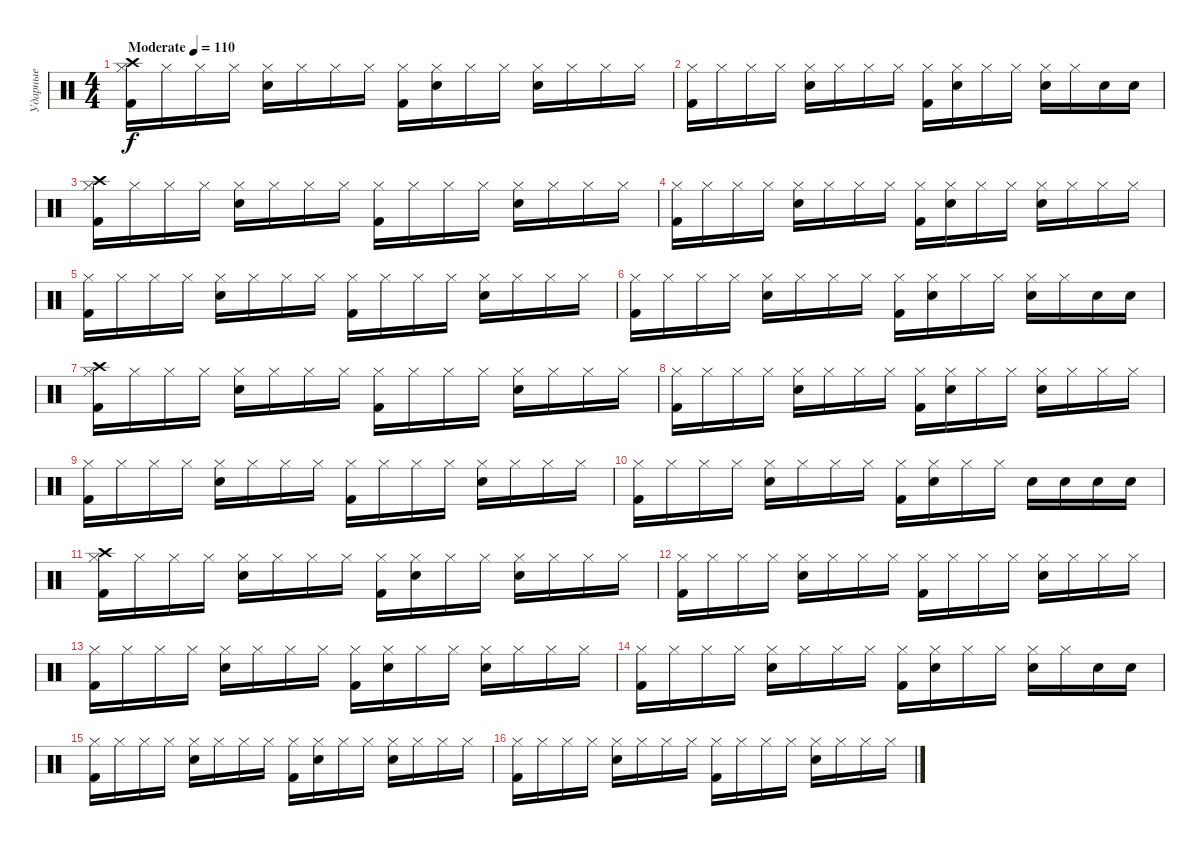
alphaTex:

\track ("Ударные" "Ударные") {instrument percussion}
\staff {score}
\articulation defaults
\ts (4 4)
\tempo (110 "Moderate")
\clef neutral
\ks c
("Crash high (hit)" "Hi-Hat (closed)" "Kick (hit) 2").16{dy f volume 16} "Hi-Hat (closed)".16 "Hi-Hat (closed)".16 "Hi-Hat (closed)".16 ("Hi-Hat (closed)" "Snare (hit) 2").16 "Hi-Hat (closed)".16 "Hi-Hat (closed)".16 "Hi-Hat (closed)".16 ("Hi-Hat (closed)" "Kick (hit) 2").16 ("Hi-Hat (closed)" "Snare (hit) 2").16 "Hi-Hat (closed)".16 "Hi-Hat (closed)".16 ("Hi-Hat (closed)" "Snare (hit) 2").16 "Hi-Hat (closed)".16 "Hi-Hat (closed)".16 "Hi-Hat (closed)".16 |
("Hi-Hat (closed)" "Kick (hit) 2").16 "Hi-Hat (closed)".16 "Hi-Hat (closed)".16 "Hi-Hat (closed)".16 ("Hi-Hat (closed)" "Snare (hit) 2").16 "Hi-Hat (closed)".16 "Hi-Hat (closed)".16 "Hi-Hat (closed)".16 ("Hi-Hat (closed)" "Kick (hit) 2").16 ("Hi-Hat (closed)" "Snare (hit) 2").16 "Hi-Hat (closed)".16 "Hi-Hat (closed)".16 ("Hi-Hat (closed)" "Snare (hit) 2").16 "Hi-Hat (closed)".16 "Snare (hit) 2".16 "Snare (hit) 2".16 |
("Crash high (hit)" "Hi-Hat (closed)" "Kick (hit) 2").16 "Hi-Hat (closed)".16 "Hi-Hat (closed)".16 "Hi-Hat (closed)".16 ("Hi-Hat (closed)" "Snare (hit) 2").16 "Hi-Hat (closed)".16 "Hi-Hat (closed)".16 "Hi-Hat (closed)".16 ("Hi-Hat (closed)" "Kick (hit) 2").16 "Hi-Hat (closed)".16 "Hi-Hat (closed)".16 "Hi-Hat (closed)".16 ("Hi-Hat (closed)" "Snare (hit) 2").16 "Hi-Hat (closed)".16 "Hi-Hat (closed)".16 "Hi-Hat (closed)".16 |
("Hi-Hat (closed)" "Kick (hit) 2").16 "Hi-Hat (closed)".16 "Hi-Hat (closed)".16 "Hi-Hat (closed)".16 ("Hi-Hat (closed)" "Snare (hit) 2").16 "Hi-Hat (closed)".16 "Hi-Hat (closed)".16 "Hi-Hat (closed)".16 ("Hi-Hat (closed)" "Kick (hit) 2").16 ("Hi-Hat (closed)" "Snare (hit) 2").16 "Hi-Hat (closed)".16 "Hi-Hat (closed)".16 ("Hi-Hat (closed)" "Snare (hit) 2").16 "Hi-Hat (closed)".16 "Hi-Hat (closed)".16 "Hi-Hat (closed)".16 |
("Hi-Hat (closed)" "Kick (hit) 2").16 "Hi-Hat (closed)".16 "Hi-Hat (closed)".16 "Hi-Hat (closed)".16 ("Hi-Hat (closed)" "Snare (hit) 2").16 "Hi-Hat (closed)".16 "Hi-Hat (closed)".16 "Hi-Hat (closed)".16 ("Hi-Hat (closed)" "Kick (hit) 2").16 "Hi-Hat (closed)".16 "Hi-Hat (closed)".16 "Hi-Hat (closed)".16 ("Hi-Hat (closed)" "Snare (hit) 2").16 "Hi-Hat (closed)".16 "Hi-Hat (closed)".16 "Hi-Hat (closed)".16 |
("Hi-Hat (closed)" "Kick (hit) 2").16 "Hi-Hat (closed)".16 "Hi-Hat (closed)".16 "Hi-Hat (closed)".16 ("Hi-Hat (closed)" "Snare (hit) 2").16 "Hi-Hat (closed)".16 "Hi-Hat (closed)".16 "Hi-Hat (closed)".16 ("Hi-Hat (closed)" "Kick (hit) 2").16 ("Hi-Hat (closed)" "Snare (hit) 2").16 "Hi-Hat (closed)".16 "Hi-Hat (closed)".16 ("Hi-Hat (closed)" "Snare (hit) 2").16 "Hi-Hat (closed)".16 "Snare (hit) 2".16 "Snare (hit) 2".16 |
("Crash high (hit)" "Hi-Hat (closed)" "Kick (hit) 2").16 "Hi-Hat (closed)".16 "Hi-Hat (closed)".16 "Hi-Hat (closed)".16 ("Hi-Hat (closed)" "Snare (hit) 2").16 "Hi-Hat (closed)".16 "Hi-Hat (closed)".16 "Hi-Hat (closed)".16 ("Hi-Hat (closed)" "Kick (hit) 2").16 "Hi-Hat (closed)".16 "Hi-Hat (closed)".16 "Hi-Hat (closed)".16 ("Hi-Hat (closed)" "Snare (hit) 2").16 "Hi-Hat (closed)".16 "Hi-Hat (closed)".16 "Hi-Hat (closed)".16 |
("Hi-Hat (closed)" "Kick (hit) 2").16 "Hi-Hat (closed)".16 "Hi-Hat (closed)".16 "Hi-Hat (closed)".16 ("Hi-Hat (closed)" "Snare (hit) 2").16 "Hi-Hat (closed)".16 "Hi-Hat (closed)".16 "Hi-Hat (closed)".16 ("Hi-Hat (closed)" "Kick (hit) 2").16 ("Hi-Hat (closed)" "Snare (hit) 2").16 "Hi-Hat (closed)".16 "Hi-Hat (closed)".16 ("Hi-Hat (closed)" "Snare (hit) 2").16 "Hi-Hat (closed)".16 "Hi-Hat (closed)".16 "Hi-Hat (closed)".16 |
("Hi-Hat (closed)" "Kick (hit) 2").16 "Hi-Hat (closed)".16 "Hi-Hat (closed)".16 "Hi-Hat (closed)".16 ("Hi-Hat (closed)" "Snare (hit) 2").16 "Hi-Hat (closed)".16 "Hi-Hat (closed)".16 "Hi-Hat (closed)".16 ("Hi-Hat (closed)" "Kick (hit) 2").16 "Hi-Hat (closed)".16 "Hi-Hat (closed)".16 "Hi-Hat (closed)".16 ("Hi-Hat (closed)" "Snare (hit) 2").16 "Hi-Hat (closed)".16 "Hi-Hat (closed)".16 "Hi-Hat (closed)".16 |
("Hi-Hat (closed)" "Kick (hit) 2").16 "Hi-Hat (closed)".16 "Hi-Hat (closed)".16 "Hi-Hat (closed)".16 ("Hi-Hat (closed)" "Snare (hit) 2").16 "Hi-Hat (closed)".16 "Hi-Hat (closed)".16 "Hi-Hat (closed)".16 ("Hi-Hat (closed)" "Kick (hit) 2").16 ("Hi-Hat (closed)" "Snare (hit) 2").16 "Hi-Hat (closed)".16 "Hi-Hat (closed)".16 "Snare (hit) 2".16 "Snare (hit) 2".16 "Snare (hit) 2".16 "Snare (hit) 2".16 |
("Crash high (hit)" "Hi-Hat (closed)" "Kick (hit) 2").16 "Hi-Hat (closed)".16 "Hi-Hat (closed)".16 "Hi-Hat (closed)".16 ("Hi-Hat (closed)" "Snare (hit) 2").16 "Hi-Hat (closed)".16 "Hi-Hat (closed)".16 "Hi-Hat (closed)".16 ("Hi-Hat (closed)" "Kick (hit) 2").16 ("Hi-Hat (closed)" "Snare (hit) 2").16 "Hi-Hat (closed)".16 "Hi-Hat (closed)".16 ("Hi-Hat (closed)" "Snare (hit) 2").16 "Hi-Hat (closed)".16 "Hi-Hat (closed)".16 "Hi-Hat (closed)".16 |
("Hi-Hat (closed)" "Kick (hit) 2").16 "Hi-Hat (closed)".16 "Hi-Hat (closed)".16 "Hi-Hat (closed)".16 ("Hi-Hat (closed)" "Snare (hit) 2").16 "Hi-Hat (closed)".16 "Hi-Hat (closed)".16 "Hi-Hat (closed)".16 ("Hi-Hat (closed)" "Kick (hit) 2").16 "Hi-Hat (closed)".16 "Hi-Hat (closed)".16 "Hi-Hat (closed)".16 ("Hi-Hat (closed)" "Snare (hit) 2").16 "Hi-Hat (closed)".16 "Hi-Hat (closed)".16 "Hi-Hat (closed)".16 |
("Hi-Hat (closed)" "Kick (hit) 2").16 "Hi-Hat (closed)".16 "Hi-Hat (closed)".16 "Hi-Hat (closed)".16 ("Hi-Hat (closed)" "Snare (hit) 2").16 "Hi-Hat (closed)".16 "Hi-Hat (closed)".16 "Hi-Hat (closed)".16 ("Hi-Hat (closed)" "Kick (hit) 2").16 ("Hi-Hat (closed)" "Snare (hit) 2").16 "Hi-Hat (closed)".16 "Hi-Hat (closed)".16 ("Hi-Hat (closed)" "Snare (hit) 2").16 "Hi-Hat (closed)".16 "Hi-Hat (closed)".16 "Hi-Hat (closed)".16 |
("Hi-Hat (closed)" "Kick (hit) 2").16 "Hi-Hat (closed)".16 "Hi-Hat (closed)".16 "Hi-Hat (closed)".16 ("Hi-Hat (closed)" "Snare (hit) 2").16 "Hi-Hat (closed)".16 "Hi-Hat (closed)".16 "Hi-Hat (closed)".16 ("Hi-Hat (closed)" "Kick (hit) 2").16 ("Hi-Hat (closed)" "Snare (hit) 2").16 "Hi-Hat (closed)".16 "Hi-Hat (closed)".16 ("Hi-Hat (closed)" "Snare (hit) 2").16 "Hi-Hat (closed)".16 "Snare (hit) 2".16 "Snare (hit) 2".16 |
("Hi-Hat (closed)" "Kick (hit) 2").16 "Hi-Hat (closed)".16 "Hi-Hat (closed)".16 "Hi-Hat (closed)".16 ("Hi-Hat (closed)" "Snare (hit) 2").16 "Hi-Hat (closed)".16 "Hi-Hat (closed)".16 "Hi-Hat (closed)".16 ("Hi-Hat (closed)" "Kick (hit) 2").16 ("Hi-Hat (closed)" "Snare (hit) 2").16 "Hi-Hat (closed)".16 "Hi-Hat (closed)".16 ("Hi-Hat (closed)" "Snare (hit) 2").16 "Hi-Hat (closed)".16 "Hi-Hat (closed)".16 "Hi-Hat (closed)".16 |
("Hi-Hat (closed)" "Kick (hit) 2").16 "Hi-Hat (closed)".16 "Hi-Hat (closed)".16 "Hi-Hat (closed)".16 ("Hi-Hat (closed)" "Snare (hit) 2").16 "Hi-Hat (closed)".16 "Hi-Hat (closed)".16 "Hi-Hat (closed)".16 ("Hi-Hat (closed)" "Kick (hit) 2").16 "Hi-Hat (closed)".16 "Hi-Hat (closed)".16 "Hi-Hat (closed)".16 ("Hi-Hat (closed)" "Snare (hit) 2").16 "Hi-Hat (closed)".16 "Hi-Hat (closed)".16 "Hi-Hat (closed)".16
